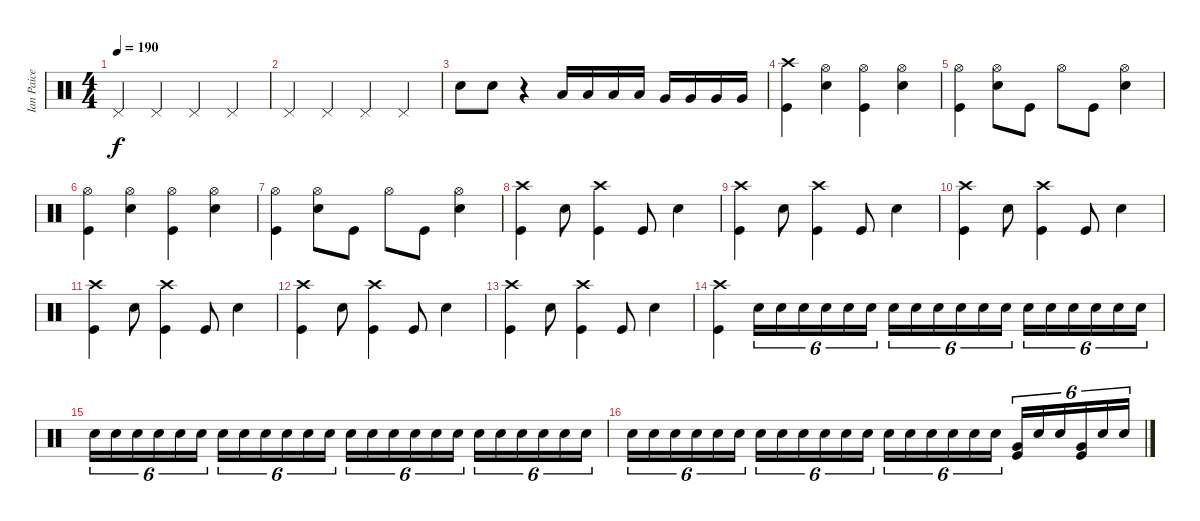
\track ("Ian Paice" "Ian Paice") {instrument percussion}
\staff {score}
\articulation defaults
\ts (4 4)
\tempo 190
\clef neutral
\ks c "Pedal Hi-Hat (hit)".4{dy f} "Pedal Hi-Hat (hit)".4 "Pedal Hi-Hat (hit)".4 "Pedal Hi-Hat (hit)".4
|
"Pedal Hi-Hat (hit)".4 "Pedal Hi-Hat (hit)".4 "Pedal Hi-Hat (hit)".4 "Pedal Hi-Hat (hit)".4 |
"Snare (hit) 2".8 "Snare (hit) 2".8 r.4 "Low Tom (hit)".16 "Low Tom (hit)".16 "Low Tom (hit)".16 "Low Tom (hit)".16 "Very Low Tom (hit)".16 "Very Low Tom (hit)".16 "Very Low Tom (hit)".16 "Very Low Tom (hit)".16 |
("Crash high (hit)" "Kick (hit)").4 ("Hi-Hat (open)" "Snare (hit) 2").4 ("Hi-Hat (open)" "Kick (hit)").4 ("Hi-Hat (open)" "Snare (hit) 2").4 |
("Hi-Hat (open)" "Kick (hit)").4 ("Hi-Hat (open)" "Snare (hit) 2").8 "Kick (hit)".8 "Hi-Hat (open)".8 "Kick (hit)".8 ("Snare (hit) 2" "Hi-Hat (open)").4 |
("Kick (hit)" "Hi-Hat (open)").4 ("Hi-Hat (open)" "Snare (hit) 2").4 ("Hi-Hat (open)" "Kick (hit)").4 ("Snare (hit) 2" "Hi-Hat (open)").4 |
("Hi-Hat (open)" "Kick (hit)").4 ("Snare (hit) 2" "Hi-Hat (open)").8 "Kick (hit)".8 "Hi-Hat (open)".8 "Kick (hit)".8 ("Snare (hit) 2" "Hi-Hat (open)").4 |
("Kick (hit)" "Crash high (hit)").4 "Snare (hit) 2".8 ("Crash high (hit)" "Kick (hit)").4 "Kick (hit)".8 "Snare (hit) 2".4 |
("Kick (hit)" "Crash high (hit)").4 "Snare (hit) 2".8 ("Crash high (hit)" "Kick (hit)").4 "Kick (hit)".8 "Snare (hit) 2".4 |
("Kick (hit)" "Crash high (hit)").4 "Snare (hit) 2".8 ("Crash high (hit)" "Kick (hit)").4 "Kick (hit)".8 "Snare (hit) 2".4 |
("Kick (hit)" "Crash high (hit)").4 "Snare (hit) 2".8 ("Crash high (hit)" "Kick (hit)").4 "Kick (hit)".8 "Snare (hit) 2".4 |
("Kick (hit)" "Crash high (hit)").4 "Snare (hit) 2".8 ("Crash high (hit)" "Kick (hit)").4 "Kick (hit)".8 "Snare (hit) 2".4 |
("Kick (hit)" "Crash high (hit)").4 "Snare (hit) 2".8 ("Crash high (hit)" "Kick (hit)").4 "Kick (hit)".8 "Snare (hit) 2".4 |
("Crash high (hit)" "Kick (hit)").4 "Snare (hit) 2".16{tu (6 4)} "Snare (hit) 2".16{tu (6 4)} "Snare (hit) 2".16{tu (6 4)} "Snare (hit) 2".16{tu (6 4)} "Snare (hit) 2".16{tu (6 4)} "Snare (hit) 2".16{tu (6 4)} "Snare (hit) 2".16{tu (6 4)} "Snare (hit) 2".16{tu (6 4)} "Snare (hit) 2".16{tu (6 4)} "Snare (hit) 2".16{tu (6 4)} "Snare (hit) 2".16{tu (6 4)} "Snare (hit) 2".16{tu (6 4)} "Snare (hit) 2".16{tu (6 4)} "Snare (hit) 2".16{tu (6 4)} "Snare (hit) 2".16{tu (6 4)} "Snare (hit) 2".16{tu (6 4)} "Snare (hit) 2".16{tu (6 4)} "Snare (hit) 2".16{tu (6 4)} |
"Snare (hit) 2".16{tu (6 4)} "Snare (hit) 2".16{tu (6 4)} "Snare (hit) 2".16{tu (6 4)} "Snare (hit) 2".16{tu (6 4)} "Snare (hit) 2".16{tu (6 4)} "Snare (hit) 2".16{tu (6 4)} "Snare (hit) 2".16{tu (6 4)} "Snare (hit) 2".16{tu (6 4)} "Snare (hit) 2".16{tu (6 4)} "Snare (hit) 2".16{tu (6 4)} "Snare (hit) 2".16{tu (6 4)} "Snare (hit) 2".16{tu (6 4)} "Snare (hit) 2".16{tu (6 4)} "Snare (hit) 2".16{tu (6 4)} "Snare (hit) 2".16{tu (6 4)} "Snare (hit) 2".16{tu (6 4)} "Snare (hit) 2".16{tu (6 4)} "Snare (hit) 2".16{tu (6 4)} "Snare (hit) 2".16{tu (6 4)} "Snare (hit) 2".16{tu (6 4)} "Snare (hit) 2".16{tu (6 4)} "Snare (hit) 2".16{tu (6 4)} "Snare (hit) 2".16{tu (6 4)} "Snare (hit) 2".16{tu (6 4)} |
"Snare (hit) 2".16{tu (6 4)} "Snare (hit) 2".16{tu (6 4)} "Snare (hit) 2".16{tu (6 4)} "Snare (hit) 2".16{tu (6 4)} "Snare (hit) 2".16{tu (6 4)} "Snare (hit) 2".16{tu (6 4)} "Snare (hit) 2".16{tu (6 4)} "Snare (hit) 2".16{tu (6 4)} "Snare (hit) 2".16{tu (6 4)} "Snare (hit) 2".16{tu (6 4)} "Snare (hit) 2".16{tu (6 4)} "Snare (hit) 2".16{tu (6 4)} "Snare (hit) 2".16{tu (6 4)} "Snare (hit) 2".16{tu (6 4)} "Snare (hit) 2".16{tu (6 4)} "Snare (hit) 2".16{tu (6 4)} "Snare (hit) 2".16{tu (6 4)} "Snare (hit) 2".16{tu (6 4)} ("Kick (hit)" "Very Low Tom (hit)").16{tu (6 4)} "Snare (hit) 2".16{tu (6 4)} "Snare (hit) 2".16{tu (6 4)} ("Kick (hit)" "Very Low Tom (hit)").16{tu (6 4)} "Snare (hit) 2".16{tu (6 4)} "Snare (hit) 2".16{tu (6 4)}
